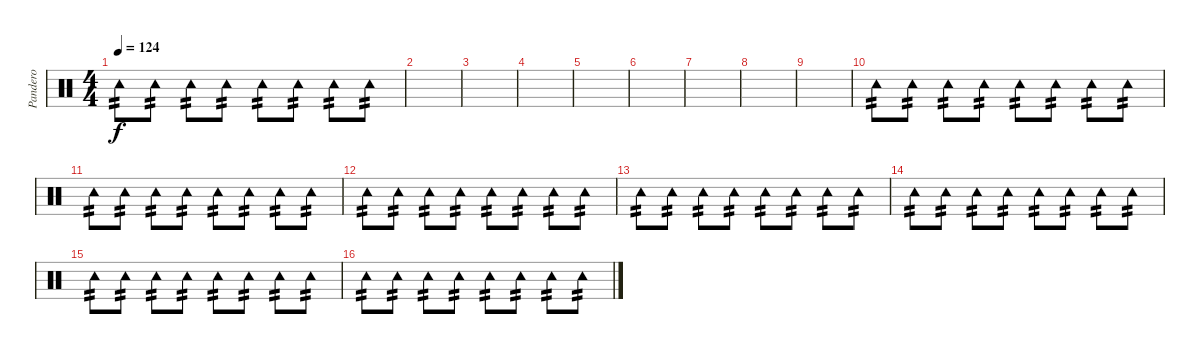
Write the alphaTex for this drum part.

\track ("Pandero" "Pandero") {instrument percussion}
\staff {score}
\articulation defaults
\ts (4 4)
\tempo 124
\clef neutral
\ks c "Tambourine (hit)".8{tp 2 dy f} "Tambourine (hit)".8{tp 2} "Tambourine (hit)".8{tp 2} "Tambourine (hit)".8{tp 2} "Tambourine (hit)".8{tp 2} "Tambourine (hit)".8{tp 2} "Tambourine (hit)".8{tp 2} "Tambourine (hit)".8{tp 2}
|
|
|
|
|
|
|
|
|
"Tambourine (hit)".8{tp 2} "Tambourine (hit)".8{tp 2} "Tambourine (hit)".8{tp 2} "Tambourine (hit)".8{tp 2} "Tambourine (hit)".8{tp 2} "Tambourine (hit)".8{tp 2} "Tambourine (hit)".8{tp 2} "Tambourine (hit)".8{tp 2} |
"Tambourine (hit)".8{tp 2} "Tambourine (hit)".8{tp 2} "Tambourine (hit)".8{tp 2} "Tambourine (hit)".8{tp 2} "Tambourine (hit)".8{tp 2} "Tambourine (hit)".8{tp 2} "Tambourine (hit)".8{tp 2} "Tambourine (hit)".8{tp 2} |
"Tambourine (hit)".8{tp 2} "Tambourine (hit)".8{tp 2} "Tambourine (hit)".8{tp 2} "Tambourine (hit)".8{tp 2} "Tambourine (hit)".8{tp 2} "Tambourine (hit)".8{tp 2} "Tambourine (hit)".8{tp 2} "Tambourine (hit)".8{tp 2} |
"Tambourine (hit)".8{tp 2} "Tambourine (hit)".8{tp 2} "Tambourine (hit)".8{tp 2} "Tambourine (hit)".8{tp 2} "Tambourine (hit)".8{tp 2} "Tambourine (hit)".8{tp 2} "Tambourine (hit)".8{tp 2} "Tambourine (hit)".8{tp 2} |
"Tambourine (hit)".8{tp 2} "Tambourine (hit)".8{tp 2} "Tambourine (hit)".8{tp 2} "Tambourine (hit)".8{tp 2} "Tambourine (hit)".8{tp 2} "Tambourine (hit)".8{tp 2} "Tambourine (hit)".8{tp 2} "Tambourine (hit)".8{tp 2} |
"Tambourine (hit)".8{tp 2} "Tambourine (hit)".8{tp 2} "Tambourine (hit)".8{tp 2} "Tambourine (hit)".8{tp 2} "Tambourine (hit)".8{tp 2} "Tambourine (hit)".8{tp 2} "Tambourine (hit)".8{tp 2} "Tambourine (hit)".8{tp 2} |
"Tambourine (hit)".8{tp 2} "Tambourine (hit)".8{tp 2} "Tambourine (hit)".8{tp 2} "Tambourine (hit)".8{tp 2} "Tambourine (hit)".8{tp 2} "Tambourine (hit)".8{tp 2} "Tambourine (hit)".8{tp 2} "Tambourine (hit)".8{tp 2}
